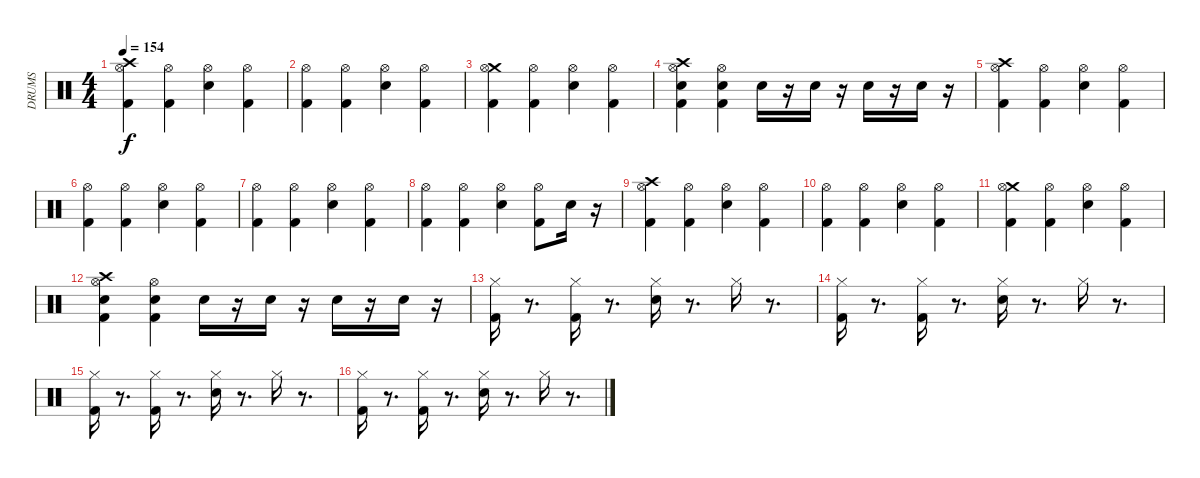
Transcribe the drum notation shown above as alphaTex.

\track ("DRUMS" "DRUMS") {instrument percussion}
\staff {score}
\articulation defaults
\ts (4 4)
\tempo 154
\clef neutral
\ks c
("Hi-Hat (open)" "Crash high (hit)" "Kick (hit) 2").4{dy f} ("Hi-Hat (open)" "Kick (hit) 2").4 ("Hi-Hat (open)" "Snare (hit) 2").4 ("Kick (hit) 2" "Hi-Hat (open)").4 |
("Hi-Hat (open)" "Kick (hit) 2").4 ("Hi-Hat (open)" "Kick (hit) 2").4 ("Hi-Hat (open)" "Snare (hit) 2").4 ("Kick (hit) 2" "Hi-Hat (open)").4 |
("Crash medium (hit)" "Hi-Hat (open)" "Kick (hit) 2").4 ("Hi-Hat (open)" "Kick (hit) 2").4 ("Hi-Hat (open)" "Snare (hit) 2").4 ("Kick (hit) 2" "Hi-Hat (open)").4 |
("Snare (hit) 2" "Hi-Hat (open)" "Kick (hit) 2" "Crash high (hit)").4 ("Snare (hit) 2" "Hi-Hat (open)" "Kick (hit) 2").4 "Snare (hit) 2".16 r.16 "Snare (hit) 2".16 r.16 "Snare (hit) 2".16 r.16 "Snare (hit) 2".16 r.16 |
("Crash high (hit)" "Kick (hit) 2" "Hi-Hat (open)").4 ("Hi-Hat (open)" "Kick (hit) 2").4 ("Hi-Hat (open)" "Snare (hit) 2").4 ("Kick (hit) 2" "Hi-Hat (open)").4 |
("Hi-Hat (open)" "Kick (hit) 2").4 ("Hi-Hat (open)" "Kick (hit) 2").4 ("Hi-Hat (open)" "Snare (hit) 2").4 ("Kick (hit) 2" "Hi-Hat (open)").4 |
("Hi-Hat (open)" "Kick (hit) 2").4 ("Hi-Hat (open)" "Kick (hit) 2").4 ("Hi-Hat (open)" "Snare (hit) 2").4 ("Kick (hit) 2" "Hi-Hat (open)").4 |
("Hi-Hat (open)" "Kick (hit) 2").4 ("Hi-Hat (open)" "Kick (hit) 2").4 ("Hi-Hat (open)" "Snare (hit) 2").4 ("Hi-Hat (open)" "Kick (hit) 2").8 "Snare (hit) 2".16 r.16 |
("Hi-Hat (open)" "Crash high (hit)" "Kick (hit) 2").4 ("Hi-Hat (open)" "Kick (hit) 2").4 ("Hi-Hat (open)" "Snare (hit) 2").4 ("Kick (hit) 2" "Hi-Hat (open)").4 |
("Hi-Hat (open)" "Kick (hit) 2").4 ("Hi-Hat (open)" "Kick (hit) 2").4 ("Hi-Hat (open)" "Snare (hit) 2").4 ("Kick (hit) 2" "Hi-Hat (open)").4 |
("Crash medium (hit)" "Hi-Hat (open)" "Kick (hit) 2").4 ("Hi-Hat (open)" "Kick (hit) 2").4 ("Hi-Hat (open)" "Snare (hit) 2").4 ("Kick (hit) 2" "Hi-Hat (open)").4 |
("Snare (hit) 2" "Hi-Hat (open)" "Kick (hit) 2" "Crash high (hit)").4 ("Snare (hit) 2" "Hi-Hat (open)" "Kick (hit) 2").4 "Snare (hit) 2".16 r.16 "Snare (hit) 2".16 r.16 "Snare (hit) 2".16 r.16 "Snare (hit) 2".16 r.16 |
("Hi-Hat (closed)" "Kick (hit) 2").16 r.8{d} ("Hi-Hat (closed)" "Kick (hit) 2").16 r.8{d} ("Hi-Hat (closed)" "Snare (hit) 2").16 r.8{d} "Hi-Hat (closed)".16 r.8{d} |
("Hi-Hat (closed)" "Kick (hit) 2").16 r.8{d} ("Hi-Hat (closed)" "Kick (hit) 2").16 r.8{d} ("Hi-Hat (closed)" "Snare (hit) 2").16 r.8{d} "Hi-Hat (closed)".16 r.8{d} |
("Hi-Hat (closed)" "Kick (hit) 2").16 r.8{d} ("Hi-Hat (closed)" "Kick (hit) 2").16 r.8{d} ("Hi-Hat (closed)" "Snare (hit) 2").16 r.8{d} "Hi-Hat (closed)".16 r.8{d} |
("Hi-Hat (closed)" "Kick (hit) 2").16 r.8{d} ("Hi-Hat (closed)" "Kick (hit) 2").16 r.8{d} ("Hi-Hat (closed)" "Snare (hit) 2").16 r.8{d} "Hi-Hat (closed)".16 r.8{d}
